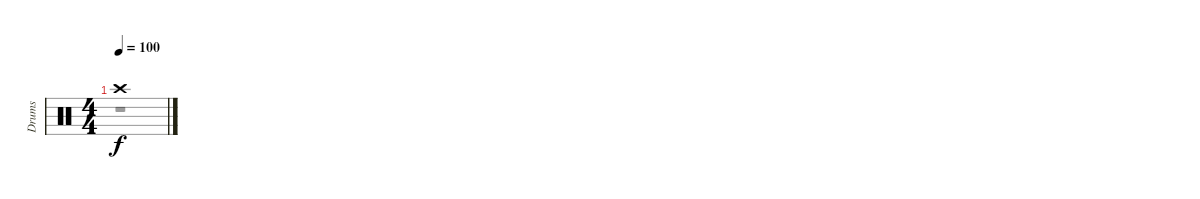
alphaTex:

\track ("Drums" "Drums") {instrument percussion}
\staff {score}
\articulation defaults
\voice
\ts (4 4)
\tempo 100
\clef neutral
\ks c "Crash high (hit)".1{dy f}
\voice
\clef neutral
\ks c
r.1{dy f}
